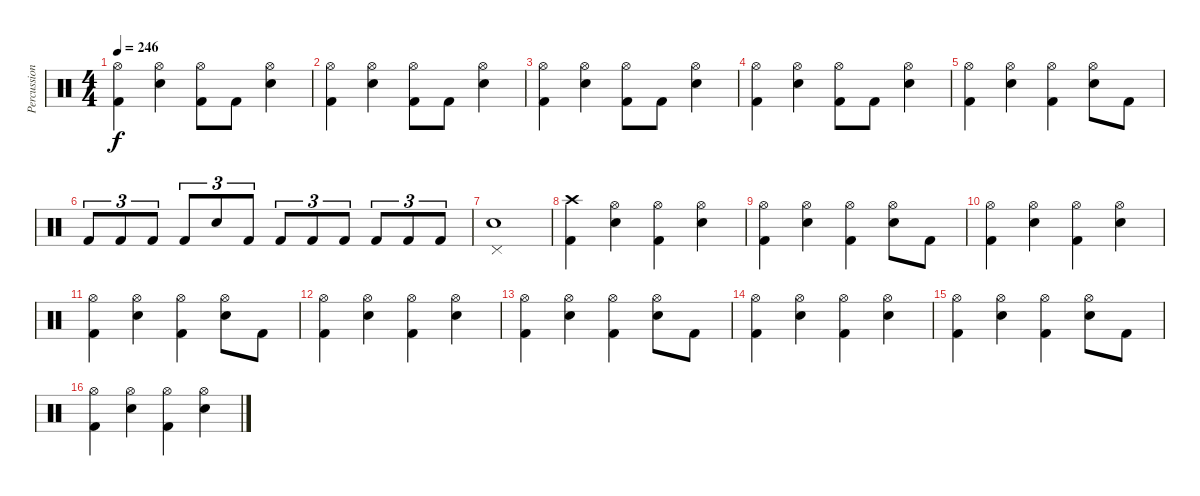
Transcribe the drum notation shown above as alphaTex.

\track ("Percussions" "Percussion") {instrument percussion}
\staff {score}
\articulation defaults
\ts (4 4)
\tempo 246
\clef neutral
\ks c
("Hi-Hat (open)" "Kick (hit) 2").4{dy f} ("Hi-Hat (open)" "Electric Snare (hit)").4 ("Hi-Hat (open)" "Kick (hit) 2").8 "Kick (hit) 2".8 ("Hi-Hat (open)" "Electric Snare (hit)").4 |
("Hi-Hat (open)" "Kick (hit) 2").4 ("Hi-Hat (open)" "Electric Snare (hit)").4 ("Hi-Hat (open)" "Kick (hit) 2").8 "Kick (hit) 2".8 ("Hi-Hat (open)" "Electric Snare (hit)").4 |
("Hi-Hat (open)" "Kick (hit) 2").4 ("Hi-Hat (open)" "Electric Snare (hit)").4 ("Hi-Hat (open)" "Kick (hit) 2").8 "Kick (hit) 2".8 ("Hi-Hat (open)" "Electric Snare (hit)").4 |
("Hi-Hat (open)" "Kick (hit) 2").4 ("Hi-Hat (open)" "Electric Snare (hit)").4 ("Hi-Hat (open)" "Kick (hit) 2").8 "Kick (hit) 2".8 ("Hi-Hat (open)" "Electric Snare (hit)").4 |
("Hi-Hat (open)" "Kick (hit) 2").4 ("Hi-Hat (open)" "Electric Snare (hit)").4 ("Hi-Hat (open)" "Kick (hit) 2").4 ("Hi-Hat (open)" "Electric Snare (hit)").8 "Kick (hit) 2".8 |
"Kick (hit) 2".8{tu (3 2)} "Kick (hit) 2".8{tu (3 2)} "Kick (hit) 2".8{tu (3 2)} "Kick (hit) 2".8{tu (3 2)} "Electric Snare (hit)".8{tu (3 2)} "Kick (hit) 2".8{tu (3 2)} "Kick (hit) 2".8{tu (3 2)} "Kick (hit) 2".8{tu (3 2)} "Kick (hit) 2".8{tu (3 2)} "Kick (hit) 2".8{tu (3 2)} "Kick (hit) 2".8{tu (3 2)} "Kick (hit) 2".8{tu (3 2)} |
("Pedal Hi-Hat (hit)" "Electric Snare (hit)").1 |
("Crash high (hit)" "Kick (hit) 2").4 ("Hi-Hat (open)" "Electric Snare (hit)").4 ("Hi-Hat (open)" "Kick (hit) 2").4 ("Hi-Hat (open)" "Electric Snare (hit)").4 |
("Hi-Hat (open)" "Kick (hit) 2").4 ("Hi-Hat (open)" "Electric Snare (hit)").4 ("Hi-Hat (open)" "Kick (hit) 2").4 ("Hi-Hat (open)" "Electric Snare (hit)").8 "Kick (hit) 2".8 |
("Hi-Hat (open)" "Kick (hit) 2").4 ("Hi-Hat (open)" "Electric Snare (hit)").4 ("Hi-Hat (open)" "Kick (hit) 2").4 ("Hi-Hat (open)" "Electric Snare (hit)").4 |
("Hi-Hat (open)" "Kick (hit) 2").4 ("Hi-Hat (open)" "Electric Snare (hit)").4 ("Hi-Hat (open)" "Kick (hit) 2").4 ("Hi-Hat (open)" "Electric Snare (hit)").8 "Kick (hit) 2".8 |
("Hi-Hat (open)" "Kick (hit) 2").4 ("Hi-Hat (open)" "Electric Snare (hit)").4 ("Hi-Hat (open)" "Kick (hit) 2").4 ("Hi-Hat (open)" "Electric Snare (hit)").4 |
("Hi-Hat (open)" "Kick (hit) 2").4 ("Hi-Hat (open)" "Electric Snare (hit)").4 ("Hi-Hat (open)" "Kick (hit) 2").4 ("Hi-Hat (open)" "Electric Snare (hit)").8 "Kick (hit) 2".8 |
("Hi-Hat (open)" "Kick (hit) 2").4 ("Hi-Hat (open)" "Electric Snare (hit)").4 ("Hi-Hat (open)" "Kick (hit) 2").4 ("Hi-Hat (open)" "Electric Snare (hit)").4 |
("Hi-Hat (open)" "Kick (hit) 2").4 ("Hi-Hat (open)" "Electric Snare (hit)").4 ("Hi-Hat (open)" "Kick (hit) 2").4 ("Hi-Hat (open)" "Electric Snare (hit)").8 "Kick (hit) 2".8 |
("Hi-Hat (open)" "Kick (hit) 2").4 ("Hi-Hat (open)" "Electric Snare (hit)").4 ("Hi-Hat (open)" "Kick (hit) 2").4 ("Hi-Hat (open)" "Electric Snare (hit)").4
